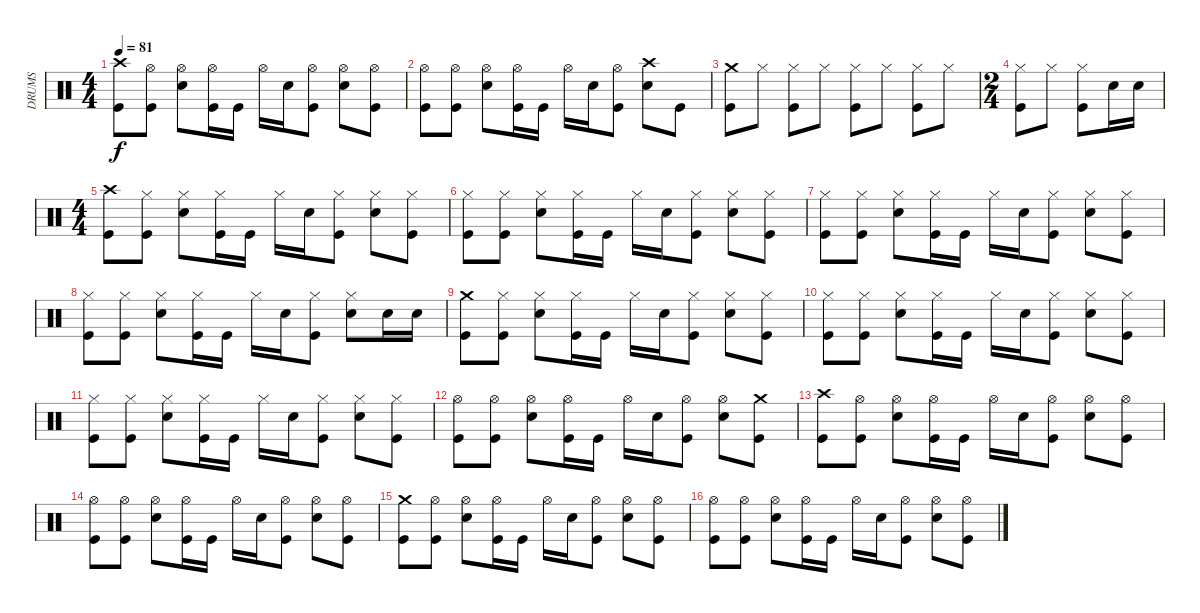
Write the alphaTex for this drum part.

\track ("DRUMS" "DRUMS") {instrument percussion}
\staff {score}
\articulation defaults
\ts (4 4)
\tempo 81
\clef neutral
\ks c
("Crash high (hit)" "Kick (hit)").8{dy f} ("Hi-Hat (open)" "Kick (hit)").8 ("Hi-Hat (open)" "Electric Snare (hit)").8 ("Hi-Hat (open)" "Kick (hit)").16 "Kick (hit)".16 "Hi-Hat (open)".16 "Electric Snare (hit)".16 ("Hi-Hat (open)" "Kick (hit)").8 ("Hi-Hat (open)" "Electric Snare (hit)").8 ("Hi-Hat (open)" "Kick (hit)").8 |
("Hi-Hat (open)" "Kick (hit)").8 ("Hi-Hat (open)" "Kick (hit)").8 ("Hi-Hat (open)" "Electric Snare (hit)").8 ("Hi-Hat (open)" "Kick (hit)").16 "Kick (hit)".16 "Hi-Hat (open)".16 "Electric Snare (hit)".16 ("Hi-Hat (open)" "Kick (hit)").8 ("Crash high (hit)" "Electric Snare (hit)").8 "Kick (hit)".8 |
("Crash medium (hit)" "Kick (hit)").8 "Hi-Hat (closed)".8 ("Hi-Hat (closed)" "Kick (hit)").8 "Hi-Hat (closed)".8 ("Hi-Hat (closed)" "Kick (hit)").8 "Hi-Hat (closed)".8 ("Hi-Hat (closed)" "Kick (hit)").8 "Hi-Hat (closed)".8 |
\ts (2 4)
("Hi-Hat (closed)" "Kick (hit)").8 "Hi-Hat (closed)".8 ("Hi-Hat (closed)" "Kick (hit)").8 "Electric Snare (hit)".16 "Electric Snare (hit)".16 |
\ts (4 4)
("Crash high (hit)" "Kick (hit)").8 ("Hi-Hat (closed)" "Kick (hit)").8 ("Hi-Hat (closed)" "Electric Snare (hit)").8 ("Hi-Hat (closed)" "Kick (hit)").16 "Kick (hit)".16 "Hi-Hat (closed)".16 "Electric Snare (hit)".16 ("Hi-Hat (closed)" "Kick (hit)").8 ("Hi-Hat (closed)" "Electric Snare (hit)").8 ("Hi-Hat (closed)" "Kick (hit)").8 |
("Hi-Hat (closed)" "Kick (hit)").8 ("Hi-Hat (closed)" "Kick (hit)").8 ("Hi-Hat (closed)" "Electric Snare (hit)").8 ("Hi-Hat (closed)" "Kick (hit)").16 "Kick (hit)".16 "Hi-Hat (closed)".16 "Electric Snare (hit)".16 ("Hi-Hat (closed)" "Kick (hit)").8 ("Hi-Hat (closed)" "Electric Snare (hit)").8 ("Hi-Hat (closed)" "Kick (hit)").8 |
("Hi-Hat (closed)" "Kick (hit)").8 ("Hi-Hat (closed)" "Kick (hit)").8 ("Hi-Hat (closed)" "Electric Snare (hit)").8 ("Hi-Hat (closed)" "Kick (hit)").16 "Kick (hit)".16 "Hi-Hat (closed)".16 "Electric Snare (hit)".16 ("Hi-Hat (closed)" "Kick (hit)").8 ("Hi-Hat (closed)" "Electric Snare (hit)").8 ("Hi-Hat (closed)" "Kick (hit)").8 |
("Hi-Hat (closed)" "Kick (hit)").8 ("Hi-Hat (closed)" "Kick (hit)").8 ("Hi-Hat (closed)" "Electric Snare (hit)").8 ("Hi-Hat (closed)" "Kick (hit)").16 "Kick (hit)".16 "Hi-Hat (closed)".16 "Electric Snare (hit)".16 ("Hi-Hat (closed)" "Kick (hit)").8 ("Hi-Hat (closed)" "Electric Snare (hit)").8 "Electric Snare (hit)".16 "Electric Snare (hit)".16 |
("Crash medium (hit)" "Kick (hit)").8 ("Hi-Hat (closed)" "Kick (hit)").8 ("Hi-Hat (closed)" "Electric Snare (hit)").8 ("Hi-Hat (closed)" "Kick (hit)").16 "Kick (hit)".16 "Hi-Hat (closed)".16 "Electric Snare (hit)".16 ("Hi-Hat (closed)" "Kick (hit)").8 ("Hi-Hat (closed)" "Electric Snare (hit)").8 ("Hi-Hat (closed)" "Kick (hit)").8 |
("Hi-Hat (closed)" "Kick (hit)").8 ("Hi-Hat (closed)" "Kick (hit)").8 ("Hi-Hat (closed)" "Electric Snare (hit)").8 ("Hi-Hat (closed)" "Kick (hit)").16 "Kick (hit)".16 "Hi-Hat (closed)".16 "Electric Snare (hit)".16 ("Hi-Hat (closed)" "Kick (hit)").8 ("Hi-Hat (closed)" "Electric Snare (hit)").8 ("Hi-Hat (closed)" "Kick (hit)").8 |
("Hi-Hat (closed)" "Kick (hit)").8 ("Hi-Hat (closed)" "Kick (hit)").8 ("Hi-Hat (closed)" "Electric Snare (hit)").8 ("Hi-Hat (closed)" "Kick (hit)").16 "Kick (hit)".16 "Hi-Hat (closed)".16 "Electric Snare (hit)".16 ("Hi-Hat (closed)" "Kick (hit)").8 ("Hi-Hat (closed)" "Electric Snare (hit)").8 ("Hi-Hat (closed)" "Kick (hit)").8 |
("Hi-Hat (open)" "Kick (hit)").8 ("Hi-Hat (open)" "Kick (hit)").8 ("Hi-Hat (open)" "Electric Snare (hit)").8 ("Hi-Hat (open)" "Kick (hit)").16 "Kick (hit)".16 "Hi-Hat (open)".16 "Electric Snare (hit)".16 ("Hi-Hat (open)" "Kick (hit)").8 ("Hi-Hat (open)" "Electric Snare (hit)").8 ("Crash medium (hit)" "Kick (hit)").8 |
("Crash high (hit)" "Kick (hit)").8 ("Hi-Hat (open)" "Kick (hit)").8 ("Hi-Hat (open)" "Electric Snare (hit)").8 ("Hi-Hat (open)" "Kick (hit)").16 "Kick (hit)".16 "Hi-Hat (open)".16 "Electric Snare (hit)".16 ("Hi-Hat (open)" "Kick (hit)").8 ("Hi-Hat (open)" "Electric Snare (hit)").8 ("Hi-Hat (open)" "Kick (hit)").8 |
("Hi-Hat (open)" "Kick (hit)").8 ("Hi-Hat (open)" "Kick (hit)").8 ("Hi-Hat (open)" "Electric Snare (hit)").8 ("Hi-Hat (open)" "Kick (hit)").16 "Kick (hit)".16 "Hi-Hat (open)".16 "Electric Snare (hit)".16 ("Hi-Hat (open)" "Kick (hit)").8 ("Hi-Hat (open)" "Electric Snare (hit)").8 ("Hi-Hat (open)" "Kick (hit)").8 |
("Crash medium (hit)" "Kick (hit)").8 ("Hi-Hat (open)" "Kick (hit)").8 ("Hi-Hat (open)" "Electric Snare (hit)").8 ("Hi-Hat (open)" "Kick (hit)").16 "Kick (hit)".16 "Hi-Hat (open)".16 "Electric Snare (hit)".16 ("Hi-Hat (open)" "Kick (hit)").8 ("Hi-Hat (open)" "Electric Snare (hit)").8 ("Hi-Hat (open)" "Kick (hit)").8 |
("Hi-Hat (open)" "Kick (hit)").8 ("Hi-Hat (open)" "Kick (hit)").8 ("Hi-Hat (open)" "Electric Snare (hit)").8 ("Hi-Hat (open)" "Kick (hit)").16 "Kick (hit)".16 "Hi-Hat (open)".16 "Electric Snare (hit)".16 ("Hi-Hat (open)" "Kick (hit)").8 ("Hi-Hat (open)" "Electric Snare (hit)").8 ("Hi-Hat (open)" "Kick (hit)").8
